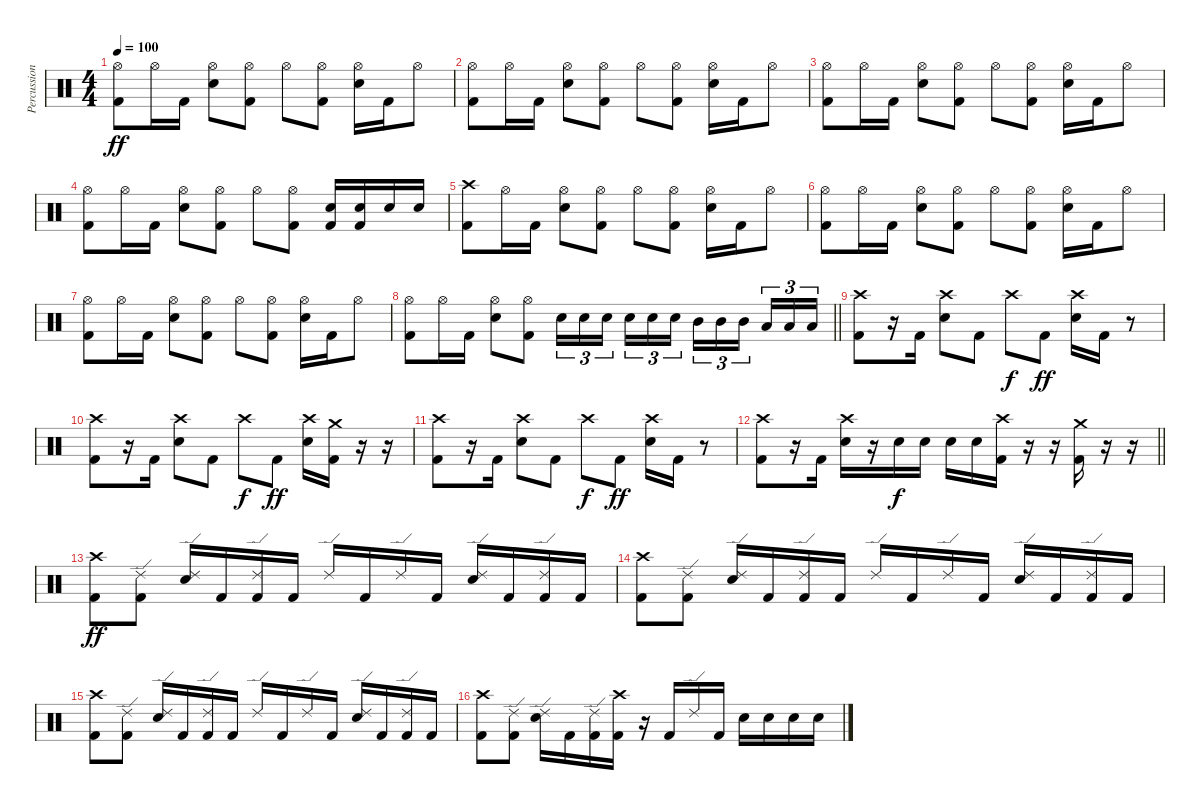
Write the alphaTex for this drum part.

\track ("Percussion" "Percussion") {instrument percussion}
\staff {score}
\articulation defaults
\ts (4 4)
\tempo 100
\clef neutral
\ks c
("Hi-Hat (open)" "Kick (hit) 2").8{dy ff} "Hi-Hat (open)".16 "Kick (hit) 2".16 ("Hi-Hat (open)" "Electric Snare (hit)").8 ("Hi-Hat (open)" "Kick (hit) 2").8 "Hi-Hat (open)".8 ("Hi-Hat (open)" "Kick (hit) 2").8 ("Hi-Hat (open)" "Electric Snare (hit)").16 "Kick (hit) 2".16 "Hi-Hat (open)".8 |
("Hi-Hat (open)" "Kick (hit) 2").8 "Hi-Hat (open)".16 "Kick (hit) 2".16 ("Hi-Hat (open)" "Electric Snare (hit)").8 ("Hi-Hat (open)" "Kick (hit) 2").8 "Hi-Hat (open)".8 ("Hi-Hat (open)" "Kick (hit) 2").8 ("Hi-Hat (open)" "Electric Snare (hit)").16 "Kick (hit) 2".16 "Hi-Hat (open)".8 |
("Hi-Hat (open)" "Kick (hit) 2").8 "Hi-Hat (open)".16 "Kick (hit) 2".16 ("Hi-Hat (open)" "Electric Snare (hit)").8 ("Hi-Hat (open)" "Kick (hit) 2").8 "Hi-Hat (open)".8 ("Hi-Hat (open)" "Kick (hit) 2").8 ("Hi-Hat (open)" "Electric Snare (hit)").16 "Kick (hit) 2".16 "Hi-Hat (open)".8 |
("Hi-Hat (open)" "Kick (hit) 2").8 "Hi-Hat (open)".16 "Kick (hit) 2".16 ("Hi-Hat (open)" "Electric Snare (hit)").8 ("Hi-Hat (open)" "Kick (hit) 2").8 "Hi-Hat (open)".8 ("Hi-Hat (open)" "Kick (hit) 2").8 ("Electric Snare (hit)" "Kick (hit) 2").16 ("Electric Snare (hit)" "Kick (hit) 2").16 "Electric Snare (hit)".16 "Electric Snare (hit)".16 |
("Crash high (hit)" "Kick (hit) 2").8 "Hi-Hat (open)".16 "Kick (hit) 2".16 ("Hi-Hat (open)" "Electric Snare (hit)").8 ("Hi-Hat (open)" "Kick (hit) 2").8 "Hi-Hat (open)".8 ("Hi-Hat (open)" "Kick (hit) 2").8 ("Hi-Hat (open)" "Electric Snare (hit)").16 "Kick (hit) 2".16 "Hi-Hat (open)".8 |
("Hi-Hat (open)" "Kick (hit) 2").8 "Hi-Hat (open)".16 "Kick (hit) 2".16 ("Hi-Hat (open)" "Electric Snare (hit)").8 ("Hi-Hat (open)" "Kick (hit) 2").8 "Hi-Hat (open)".8 ("Hi-Hat (open)" "Kick (hit) 2").8 ("Hi-Hat (open)" "Electric Snare (hit)").16 "Kick (hit) 2".16 "Hi-Hat (open)".8 |
("Hi-Hat (open)" "Kick (hit) 2").8 "Hi-Hat (open)".16 "Kick (hit) 2".16 ("Hi-Hat (open)" "Electric Snare (hit)").8 ("Hi-Hat (open)" "Kick (hit) 2").8 "Hi-Hat (open)".8 ("Hi-Hat (open)" "Kick (hit) 2").8 ("Hi-Hat (open)" "Electric Snare (hit)").16 "Kick (hit) 2".16 "Hi-Hat (open)".8 |
\barLineRight lightlight
("Hi-Hat (open)" "Kick (hit) 2").8 "Hi-Hat (open)".16 "Kick (hit) 2".16 ("Hi-Hat (open)" "Electric Snare (hit)").8 ("Hi-Hat (open)" "Kick (hit) 2").8 "Electric Snare (hit)".16{tu (3 2)} "Electric Snare (hit)".16{tu (3 2)} "Electric Snare (hit)".16{tu (3 2) beam splitsecondary} "Electric Snare (hit)".16{tu (3 2)} "Electric Snare (hit)".16{tu (3 2)} "Electric Snare (hit)".16{tu (3 2)} "Mid Tom (hit)".16{tu (3 2)} "Mid Tom (hit)".16{tu (3 2)} "Mid Tom (hit)".16{tu (3 2) beam splitsecondary} "Low Tom (hit)".16{tu (3 2)} "Low Tom (hit)".16{tu (3 2)} "Low Tom (hit)".16{tu (3 2)} |
("Crash high (hit)" "Kick (hit) 2").8 r.16 "Kick (hit) 2".16 ("Crash high (hit)" "Electric Snare (hit)").8 "Kick (hit) 2".8 "Crash high (hit)".8{dy f} "Kick (hit) 2".8{dy ff} ("Crash high (hit)" "Electric Snare (hit)").16 "Kick (hit) 2".16 r.8 |
("Crash high (hit)" "Kick (hit) 2").8 r.16 "Kick (hit) 2".16 ("Crash high (hit)" "Electric Snare (hit)").8 "Kick (hit) 2".8 "Crash high (hit)".8{dy f} "Kick (hit) 2".8{dy ff} ("Crash high (hit)" "Electric Snare (hit)").16 ("Crash medium (hit)" "Kick (hit) 2").16 r.16 r.16 |
("Crash high (hit)" "Kick (hit) 2").8 r.16 "Kick (hit) 2".16 ("Crash high (hit)" "Electric Snare (hit)").8 "Kick (hit) 2".8 "Crash high (hit)".8{dy f} "Kick (hit) 2".8{dy ff} ("Crash high (hit)" "Electric Snare (hit)").16 "Kick (hit) 2".16 r.8 |
\barLineRight lightlight
("Crash high (hit)" "Kick (hit) 2").8 r.16 "Kick (hit) 2".16 ("Crash high (hit)" "Electric Snare (hit)").16 r.16 "Electric Snare (hit)".16{dy f} "Electric Snare (hit)".16 "Electric Snare (hit)".16 "Electric Snare (hit)".16 ("Crash high (hit)" "Kick (hit) 2").16 r.16 r.16 ("Crash medium (hit)" "Kick (hit) 2").16 r.16 r.16 |
("Crash high (hit)" "Kick (hit) 2").8{dy ff} ("Ride (edge) 2" "Kick (hit) 2").8 ("Ride (edge) 2" "Electric Snare (hit)").16 "Kick (hit) 2".16 ("Ride (edge) 2" "Kick (hit) 2").16 "Kick (hit) 2".16 "Ride (edge) 2".16 "Kick (hit) 2".16 "Ride (edge) 2".16 "Kick (hit) 2".16 ("Ride (edge) 2" "Electric Snare (hit)").16 "Kick (hit) 2".16 ("Ride (edge) 2" "Kick (hit) 2").16 "Kick (hit) 2".16 |
("Crash high (hit)" "Kick (hit) 2").8 ("Ride (edge) 2" "Kick (hit) 2").8 ("Ride (edge) 2" "Electric Snare (hit)").16 "Kick (hit) 2".16 ("Ride (edge) 2" "Kick (hit) 2").16 "Kick (hit) 2".16 "Ride (edge) 2".16 "Kick (hit) 2".16 "Ride (edge) 2".16 "Kick (hit) 2".16 ("Ride (edge) 2" "Electric Snare (hit)").16 "Kick (hit) 2".16 ("Ride (edge) 2" "Kick (hit) 2").16 "Kick (hit) 2".16 |
("Crash high (hit)" "Kick (hit) 2").8 ("Ride (edge) 2" "Kick (hit) 2").8 ("Ride (edge) 2" "Electric Snare (hit)").16 "Kick (hit) 2".16 ("Ride (edge) 2" "Kick (hit) 2").16 "Kick (hit) 2".16 "Ride (edge) 2".16 "Kick (hit) 2".16 "Ride (edge) 2".16 "Kick (hit) 2".16 ("Ride (edge) 2" "Electric Snare (hit)").16 "Kick (hit) 2".16 ("Ride (edge) 2" "Kick (hit) 2").16 "Kick (hit) 2".16 |
("Crash high (hit)" "Kick (hit) 2").8 ("Ride (edge) 2" "Kick (hit) 2").8 ("Ride (edge) 2" "Electric Snare (hit)").16 "Kick (hit) 2".16 ("Ride (edge) 2" "Kick (hit) 2").16 ("Crash high (hit)" "Kick (hit) 2").16 r.16 "Kick (hit) 2".16 "Ride (edge) 2".16 "Kick (hit) 2".16 "Electric Snare (hit)".16 "Electric Snare (hit)".16 "Electric Snare (hit)".16 "Electric Snare (hit)".16
